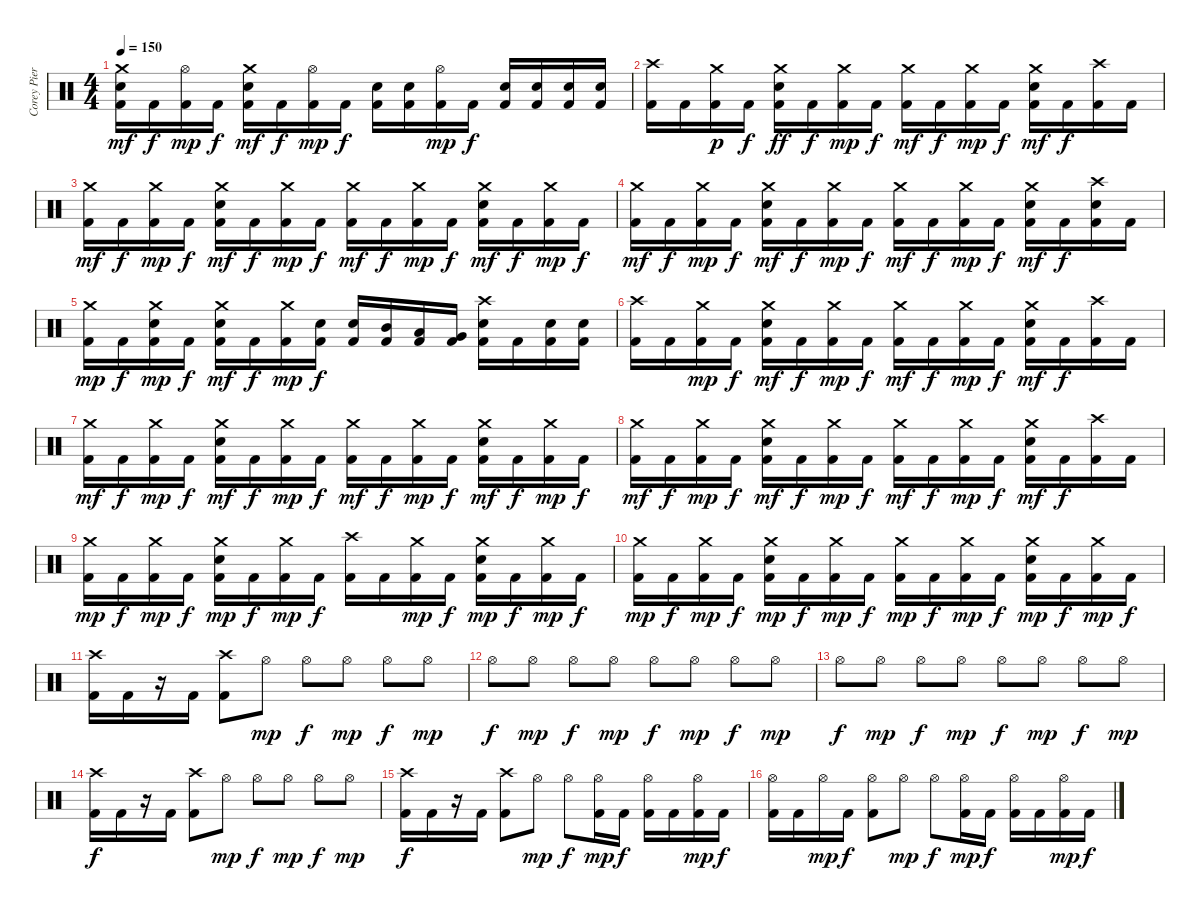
\track ("Corey Pierce" "Corey Pier") {instrument percussion}
\staff {score}
\articulation defaults
\ts (4 4)
\tempo 150
\clef neutral
\ks c
("Crash medium (hit)" "Electric Snare (hit)" "Kick (hit) 2").16{dy mf} "Kick (hit) 2".16{dy f} ("Hi-Hat (open)" "Kick (hit) 2").16{dy mp} "Kick (hit) 2".16{dy f} ("Crash medium (hit)" "Electric Snare (hit)" "Kick (hit) 2").16{dy mf} "Kick (hit) 2".16{dy f} ("Hi-Hat (open)" "Kick (hit) 2").16{dy mp} "Kick (hit) 2".16{dy f} ("Electric Snare (hit)" "Kick (hit) 2").16 ("Electric Snare (hit)" "Kick (hit) 2").16 ("Hi-Hat (open)" "Kick (hit) 2").16{dy mp} "Kick (hit) 2".16{dy f} ("Electric Snare (hit)" "Kick (hit) 2").16 ("Electric Snare (hit)" "Kick (hit) 2").16 ("Electric Snare (hit)" "Kick (hit) 2").16 ("Electric Snare (hit)" "Kick (hit) 2").16 |
("Crash high (hit)" "Kick (hit) 2").16 "Kick (hit) 2".16 ("Crash medium (hit)" "Kick (hit) 2").16{dy p} "Kick (hit) 2".16{dy f} ("Crash medium (hit)" "Electric Snare (hit)" "Kick (hit) 2").16{dy ff} "Kick (hit) 2".16{dy f} ("Crash medium (hit)" "Kick (hit) 2").16{dy mp} "Kick (hit) 2".16{dy f} ("Crash medium (hit)" "Kick (hit) 2").16{dy mf} "Kick (hit) 2".16{dy f} ("Crash medium (hit)" "Kick (hit) 2").16{dy mp} "Kick (hit) 2".16{dy f} ("Crash medium (hit)" "Electric Snare (hit)" "Kick (hit) 2").16{dy mf} "Kick (hit) 2".16{dy f} ("Crash high (hit)" "Kick (hit) 2").16 "Kick (hit) 2".16 |
("Crash medium (hit)" "Kick (hit) 2").16{dy mf} "Kick (hit) 2".16{dy f} ("Crash medium (hit)" "Kick (hit) 2").16{dy mp} "Kick (hit) 2".16{dy f} ("Crash medium (hit)" "Electric Snare (hit)" "Kick (hit) 2").16{dy mf} "Kick (hit) 2".16{dy f} ("Crash medium (hit)" "Kick (hit) 2").16{dy mp} "Kick (hit) 2".16{dy f} ("Crash medium (hit)" "Kick (hit) 2").16{dy mf} "Kick (hit) 2".16{dy f} ("Crash medium (hit)" "Kick (hit) 2").16{dy mp} "Kick (hit) 2".16{dy f} ("Crash medium (hit)" "Electric Snare (hit)" "Kick (hit) 2").16{dy mf} "Kick (hit) 2".16{dy f} ("Crash medium (hit)" "Kick (hit) 2").16{dy mp} "Kick (hit) 2".16{dy f} |
("Crash medium (hit)" "Kick (hit) 2").16{dy mf} "Kick (hit) 2".16{dy f} ("Crash medium (hit)" "Kick (hit) 2").16{dy mp} "Kick (hit) 2".16{dy f} ("Crash medium (hit)" "Electric Snare (hit)" "Kick (hit) 2").16{dy mf} "Kick (hit) 2".16{dy f} ("Crash medium (hit)" "Kick (hit) 2").16{dy mp} "Kick (hit) 2".16{dy f} ("Crash medium (hit)" "Kick (hit) 2").16{dy mf} "Kick (hit) 2".16{dy f} ("Crash medium (hit)" "Kick (hit) 2").16{dy mp} "Kick (hit) 2".16{dy f} ("Crash medium (hit)" "Electric Snare (hit)" "Kick (hit) 2").16{dy mf} "Kick (hit) 2".16{dy f} ("Crash high (hit)" "Electric Snare (hit)" "Kick (hit) 2").16 "Kick (hit) 2".16 |
("Crash medium (hit)" "Kick (hit) 2").16{dy mp} "Kick (hit) 2".16{dy f} ("Crash medium (hit)" "Electric Snare (hit)" "Kick (hit) 2").16{dy mp} "Kick (hit) 2".16{dy f} ("Crash medium (hit)" "Electric Snare (hit)" "Kick (hit) 2").16{dy mf} "Kick (hit) 2".16{dy f} ("Crash medium (hit)" "Kick (hit) 2").16{dy mp} ("Electric Snare (hit)" "Kick (hit) 2").16{dy f} ("Electric Snare (hit)" "Kick (hit) 2").16 ("Mid Tom (hit)" "Kick (hit) 2").16 ("Low Tom (hit)" "Kick (hit) 2").16 ("Very Low Tom (hit)" "Kick (hit) 2").16 ("Crash high (hit)" "Electric Snare (hit)" "Kick (hit) 2").16 "Kick (hit) 2".16 ("Electric Snare (hit)" "Kick (hit) 2").16 ("Electric Snare (hit)" "Kick (hit) 2").16 |
("Crash high (hit)" "Kick (hit) 2").16 "Kick (hit) 2".16 ("Crash medium (hit)" "Kick (hit) 2").16{dy mp} "Kick (hit) 2".16{dy f} ("Crash medium (hit)" "Electric Snare (hit)" "Kick (hit) 2").16{dy mf} "Kick (hit) 2".16{dy f} ("Crash medium (hit)" "Kick (hit) 2").16{dy mp} "Kick (hit) 2".16{dy f} ("Crash medium (hit)" "Kick (hit) 2").16{dy mf} "Kick (hit) 2".16{dy f} ("Crash medium (hit)" "Kick (hit) 2").16{dy mp} "Kick (hit) 2".16{dy f} ("Crash medium (hit)" "Electric Snare (hit)" "Kick (hit) 2").16{dy mf} "Kick (hit) 2".16{dy f} ("Crash high (hit)" "Kick (hit) 2").16 "Kick (hit) 2".16 |
("Crash medium (hit)" "Kick (hit) 2").16{dy mf} "Kick (hit) 2".16{dy f} ("Crash medium (hit)" "Kick (hit) 2").16{dy mp} "Kick (hit) 2".16{dy f} ("Crash medium (hit)" "Electric Snare (hit)" "Kick (hit) 2").16{dy mf} "Kick (hit) 2".16{dy f} ("Crash medium (hit)" "Kick (hit) 2").16{dy mp} "Kick (hit) 2".16{dy f} ("Crash medium (hit)" "Kick (hit) 2").16{dy mf} "Kick (hit) 2".16{dy f} ("Crash medium (hit)" "Kick (hit) 2").16{dy mp} "Kick (hit) 2".16{dy f} ("Crash medium (hit)" "Electric Snare (hit)" "Kick (hit) 2").16{dy mf} "Kick (hit) 2".16{dy f} ("Crash medium (hit)" "Kick (hit) 2").16{dy mp} "Kick (hit) 2".16{dy f} |
("Crash medium (hit)" "Kick (hit) 2").16{dy mf} "Kick (hit) 2".16{dy f} ("Crash medium (hit)" "Kick (hit) 2").16{dy mp} "Kick (hit) 2".16{dy f} ("Crash medium (hit)" "Electric Snare (hit)" "Kick (hit) 2").16{dy mf} "Kick (hit) 2".16{dy f} ("Crash medium (hit)" "Kick (hit) 2").16{dy mp} "Kick (hit) 2".16{dy f} ("Crash medium (hit)" "Kick (hit) 2").16{dy mf} "Kick (hit) 2".16{dy f} ("Crash medium (hit)" "Kick (hit) 2").16{dy mp} "Kick (hit) 2".16{dy f} ("Crash medium (hit)" "Electric Snare (hit)" "Kick (hit) 2").16{dy mf} "Kick (hit) 2".16{dy f} ("Crash high (hit)" "Kick (hit) 2").16 "Kick (hit) 2".16 |
("Crash medium (hit)" "Kick (hit) 2").16{dy mp} "Kick (hit) 2".16{dy f} ("Crash medium (hit)" "Kick (hit) 2").16{dy mp} "Kick (hit) 2".16{dy f} ("Crash medium (hit)" "Electric Snare (hit)" "Kick (hit) 2").16{dy mp} "Kick (hit) 2".16{dy f} ("Crash medium (hit)" "Kick (hit) 2").16{dy mp} "Kick (hit) 2".16{dy f} ("Crash high (hit)" "Kick (hit) 2").16 "Kick (hit) 2".16 ("Crash medium (hit)" "Kick (hit) 2").16{dy mp} "Kick (hit) 2".16{dy f} ("Crash medium (hit)" "Electric Snare (hit)" "Kick (hit) 2").16{dy mp} "Kick (hit) 2".16{dy f} ("Crash medium (hit)" "Kick (hit) 2").16{dy mp} "Kick (hit) 2".16{dy f} |
("Crash medium (hit)" "Kick (hit) 2").16{dy mp} "Kick (hit) 2".16{dy f} ("Crash medium (hit)" "Kick (hit) 2").16{dy mp} "Kick (hit) 2".16{dy f} ("Crash medium (hit)" "Electric Snare (hit)" "Kick (hit) 2").16{dy mp} "Kick (hit) 2".16{dy f} ("Crash medium (hit)" "Kick (hit) 2").16{dy mp} "Kick (hit) 2".16{dy f} ("Crash medium (hit)" "Kick (hit) 2").16{dy mp} "Kick (hit) 2".16{dy f} ("Crash medium (hit)" "Kick (hit) 2").16{dy mp} "Kick (hit) 2".16{dy f} ("Crash medium (hit)" "Electric Snare (hit)" "Kick (hit) 2").16{dy mp} "Kick (hit) 2".16{dy f} ("Crash medium (hit)" "Kick (hit) 2").16{dy mp} "Kick (hit) 2".16{dy f} |
("Crash high (hit)" "Kick (hit) 2").16 "Kick (hit) 2".16 r.16 "Kick (hit) 2".16 ("Crash high (hit)" "Kick (hit) 2").8 "Hi-Hat (open)".8{dy mp} "Hi-Hat (open)".8{dy f} "Hi-Hat (open)".8{dy mp} "Hi-Hat (open)".8{dy f} "Hi-Hat (open)".8{dy mp} |
"Hi-Hat (open)".8{dy f} "Hi-Hat (open)".8{dy mp} "Hi-Hat (open)".8{dy f} "Hi-Hat (open)".8{dy mp} "Hi-Hat (open)".8{dy f} "Hi-Hat (open)".8{dy mp} "Hi-Hat (open)".8{dy f} "Hi-Hat (open)".8{dy mp} |
"Hi-Hat (open)".8{dy f} "Hi-Hat (open)".8{dy mp} "Hi-Hat (open)".8{dy f} "Hi-Hat (open)".8{dy mp} "Hi-Hat (open)".8{dy f} "Hi-Hat (open)".8{dy mp} "Hi-Hat (open)".8{dy f} "Hi-Hat (open)".8{dy mp} |
("Crash high (hit)" "Kick (hit) 2").16{dy f} "Kick (hit) 2".16 r.16 "Kick (hit) 2".16 ("Crash high (hit)" "Kick (hit) 2").8 "Hi-Hat (open)".8{dy mp} "Hi-Hat (open)".8{dy f} "Hi-Hat (open)".8{dy mp} "Hi-Hat (open)".8{dy f} "Hi-Hat (open)".8{dy mp} |
("Crash high (hit)" "Kick (hit) 2").16{dy f} "Kick (hit) 2".16 r.16 "Kick (hit) 2".16 ("Crash high (hit)" "Kick (hit) 2").8 "Hi-Hat (open)".8{dy mp} "Hi-Hat (open)".8{dy f} ("Hi-Hat (open)" "Kick (hit) 2").16{dy mp} "Kick (hit) 2".16{dy f} ("Hi-Hat (open)" "Kick (hit) 2").16 "Kick (hit) 2".16 ("Hi-Hat (open)" "Kick (hit) 2").16{dy mp} "Kick (hit) 2".16{dy f} |
("Hi-Hat (open)" "Kick (hit) 2").16 "Kick (hit) 2".16 "Hi-Hat (open)".16{dy mp} "Kick (hit) 2".16{dy f} ("Hi-Hat (open)" "Kick (hit) 2").8 "Hi-Hat (open)".8{dy mp} "Hi-Hat (open)".8{dy f} ("Hi-Hat (open)" "Kick (hit) 2").16{dy mp} "Kick (hit) 2".16{dy f} ("Hi-Hat (open)" "Kick (hit) 2").16 "Kick (hit) 2".16 ("Hi-Hat (open)" "Kick (hit) 2").16{dy mp} "Kick (hit) 2".16{dy f}
